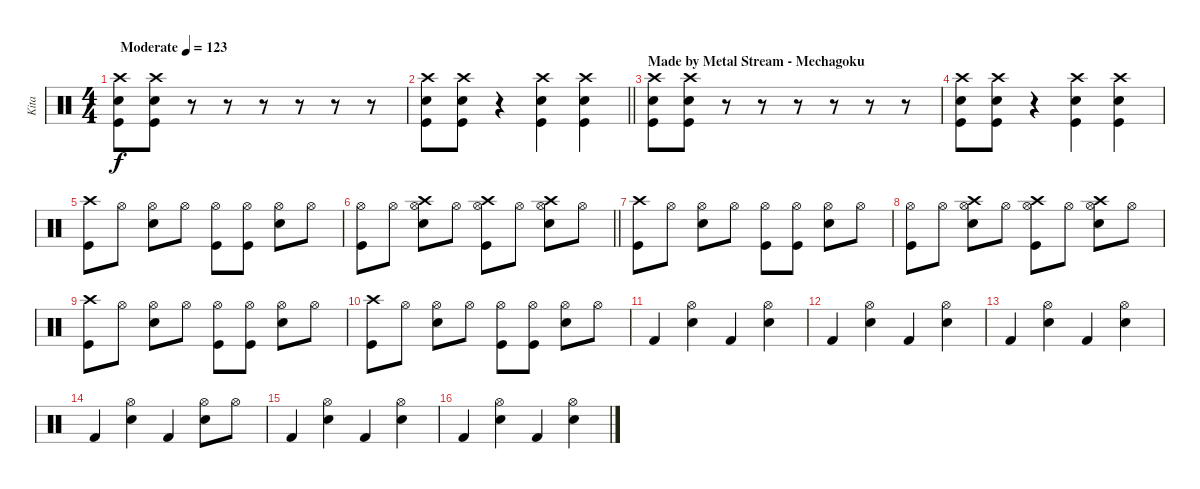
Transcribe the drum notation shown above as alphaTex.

\track ("Kita" "Kita") {instrument percussion}
\staff {score}
\articulation defaults
\ts (4 4)
\tempo (123 "Moderate")
\clef neutral
\ks c
("Crash high (hit)" "Snare (hit) 2" "Kick (hit)").8{dy f} ("Crash high (hit)" "Snare (hit) 2" "Kick (hit)").8 r.8 r.8 r.8 r.8 r.8 r.8 |
\barLineRight lightlight
("Crash high (hit)" "Snare (hit) 2" "Kick (hit)").8 ("Crash high (hit)" "Snare (hit) 2" "Kick (hit)").8 r.4 ("Kick (hit)" "Crash high (hit)" "Snare (hit) 2").4 ("Kick (hit)" "Crash high (hit)" "Snare (hit) 2").4 |
\section ("" "Made by Metal Stream - Mechagoku")
("Crash high (hit)" "Snare (hit) 2" "Kick (hit)").8 ("Crash high (hit)" "Snare (hit) 2" "Kick (hit)").8 r.8 r.8 r.8 r.8 r.8 r.8 |
("Crash high (hit)" "Snare (hit) 2" "Kick (hit)").8 ("Crash high (hit)" "Snare (hit) 2" "Kick (hit)").8 r.4 ("Kick (hit)" "Crash high (hit)" "Snare (hit) 2").4 ("Kick (hit)" "Crash high (hit)" "Snare (hit) 2").4 |
("Crash high (hit)" "Kick (hit)").8 "Hi-Hat (open)".8 ("Hi-Hat (open)" "Snare (hit) 2").8 "Hi-Hat (open)".8 ("Hi-Hat (open)" "Kick (hit)").8 ("Hi-Hat (open)" "Kick (hit)").8 ("Hi-Hat (open)" "Snare (hit) 2").8 "Hi-Hat (open)".8 |
\barLineRight lightlight
("Hi-Hat (open)" "Kick (hit)").8 "Hi-Hat (open)".8 ("Hi-Hat (open)" "Snare (hit) 2" "Crash high (hit)").8 "Hi-Hat (open)".8 ("Hi-Hat (open)" "Kick (hit)" "Crash high (hit)").8 "Hi-Hat (open)".8 ("Hi-Hat (open)" "Snare (hit) 2" "Crash high (hit)").8 "Hi-Hat (open)".8 |
("Crash high (hit)" "Kick (hit)").8 "Hi-Hat (open)".8 ("Hi-Hat (open)" "Snare (hit) 2").8 "Hi-Hat (open)".8 ("Hi-Hat (open)" "Kick (hit)").8 ("Hi-Hat (open)" "Kick (hit)").8 ("Hi-Hat (open)" "Snare (hit) 2").8 "Hi-Hat (open)".8 |
("Hi-Hat (open)" "Kick (hit)").8 "Hi-Hat (open)".8 ("Hi-Hat (open)" "Snare (hit) 2" "Crash high (hit)").8 "Hi-Hat (open)".8 ("Hi-Hat (open)" "Kick (hit)" "Crash high (hit)").8 "Hi-Hat (open)".8 ("Hi-Hat (open)" "Snare (hit) 2" "Crash high (hit)").8 "Hi-Hat (open)".8 |
("Crash high (hit)" "Kick (hit)").8 "Hi-Hat (open)".8 ("Hi-Hat (open)" "Snare (hit) 2").8 "Hi-Hat (open)".8 ("Hi-Hat (open)" "Kick (hit)").8 ("Hi-Hat (open)" "Kick (hit)").8 ("Hi-Hat (open)" "Snare (hit) 2").8 "Hi-Hat (open)".8 |
("Crash high (hit)" "Kick (hit)").8 "Hi-Hat (open)".8 ("Hi-Hat (open)" "Snare (hit) 2").8 "Hi-Hat (open)".8 ("Hi-Hat (open)" "Kick (hit)").8 ("Hi-Hat (open)" "Kick (hit)").8 ("Hi-Hat (open)" "Snare (hit) 2").8 "Hi-Hat (open)".8 |
"Kick (hit) 2".4 ("Hi-Hat (open)" "Snare (hit) 2").4 "Kick (hit) 2".4 ("Hi-Hat (open)" "Snare (hit) 2").4 |
"Kick (hit) 2".4 ("Hi-Hat (open)" "Snare (hit) 2").4 "Kick (hit) 2".4 ("Hi-Hat (open)" "Snare (hit) 2").4 |
"Kick (hit) 2".4 ("Hi-Hat (open)" "Snare (hit) 2").4 "Kick (hit) 2".4 ("Hi-Hat (open)" "Snare (hit) 2").4 |
"Kick (hit) 2".4 ("Hi-Hat (open)" "Snare (hit) 2").4 "Kick (hit) 2".4 ("Hi-Hat (open)" "Snare (hit) 2").8 "Hi-Hat (open)".8 |
"Kick (hit) 2".4 ("Hi-Hat (open)" "Snare (hit) 2").4 "Kick (hit) 2".4 ("Hi-Hat (open)" "Snare (hit) 2").4 |
"Kick (hit) 2".4 ("Hi-Hat (open)" "Snare (hit) 2").4 "Kick (hit) 2".4 ("Hi-Hat (open)" "Snare (hit) 2").4
